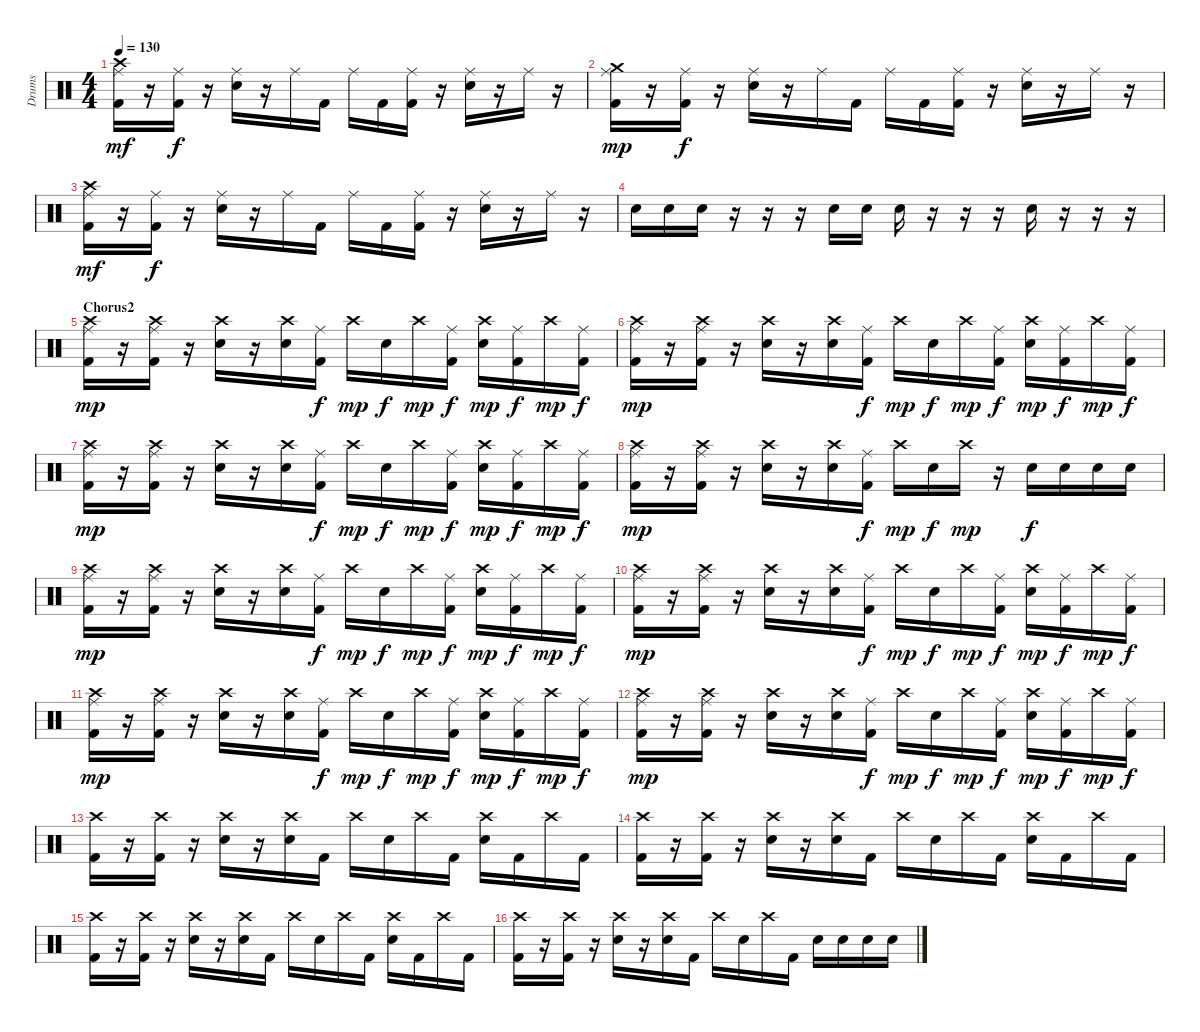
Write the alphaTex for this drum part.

\track ("Drums" "Drums") {instrument percussion}
\staff {score}
\articulation defaults
\ts (4 4)
\tempo 130
\clef neutral
\ks c
("Crash high (hit)" "Ride (middle)" "Kick (hit) 2").16{dy mf} r.16 ("Ride (middle)" "Kick (hit) 2").16{dy f} r.16 ("Ride (middle)" "Snare (hit) 2").16 r.16 "Ride (middle)".16 "Kick (hit) 2".16 "Ride (middle)".16 "Kick (hit) 2".16 ("Ride (middle)" "Kick (hit) 2").16 r.16 ("Ride (middle)" "Snare (hit) 2").16 r.16 "Ride (middle)".16 r.16 |
("Crash medium (hit)" "Ride (middle)" "Kick (hit) 2").16{dy mp} r.16 ("Ride (middle)" "Kick (hit) 2").16{dy f} r.16 ("Ride (middle)" "Snare (hit) 2").16 r.16 "Ride (middle)".16 "Kick (hit) 2".16 "Ride (middle)".16 "Kick (hit) 2".16 ("Ride (middle)" "Kick (hit) 2").16 r.16 ("Ride (middle)" "Snare (hit) 2").16 r.16 "Ride (middle)".16 r.16 |
("Crash high (hit)" "Ride (middle)" "Kick (hit) 2").16{dy mf} r.16 ("Ride (middle)" "Kick (hit) 2").16{dy f} r.16 ("Ride (middle)" "Snare (hit) 2").16 r.16 "Ride (middle)".16 "Kick (hit) 2".16 "Ride (middle)".16 "Kick (hit) 2".16 ("Ride (middle)" "Kick (hit) 2").16 r.16 ("Ride (middle)" "Snare (hit) 2").16 r.16 "Ride (middle)".16 r.16 |
"Snare (hit) 2".16 "Snare (hit) 2".16 "Snare (hit) 2".16 r.16 r.16 r.16 "Snare (hit) 2".16 "Snare (hit) 2".16 "Snare (hit) 2".16 r.16 r.16 r.16 "Snare (hit) 2".16 r.16 r.16 r.16 |
\section ("" "Chorus2")
("Ride (middle)" "Crash high (hit)" "Kick (hit) 2").16{dy mp} r.16 ("Ride (middle)" "Crash high (hit)" "Kick (hit) 2").16 r.16 ("Crash high (hit)" "Snare (hit) 2").16 r.16 ("Crash high (hit)" "Snare (hit) 2").16 ("Ride (middle)" "Kick (hit) 2").16{dy f} "Crash high (hit)".16{dy mp} "Snare (hit) 2".16{dy f} "Crash high (hit)".16{dy mp} ("Ride (middle)" "Kick (hit) 2").16{dy f} ("Crash high (hit)" "Snare (hit) 2").16{dy mp} ("Ride (middle)" "Kick (hit) 2").16{dy f} "Crash high (hit)".16{dy mp} ("Ride (middle)" "Kick (hit) 2").16{dy f} |
("Ride (middle)" "Crash high (hit)" "Kick (hit) 2").16{dy mp} r.16 ("Ride (middle)" "Crash high (hit)" "Kick (hit) 2").16 r.16 ("Crash high (hit)" "Snare (hit) 2").16 r.16 ("Crash high (hit)" "Snare (hit) 2").16 ("Ride (middle)" "Kick (hit) 2").16{dy f} "Crash high (hit)".16{dy mp} "Snare (hit) 2".16{dy f} "Crash high (hit)".16{dy mp} ("Ride (middle)" "Kick (hit) 2").16{dy f} ("Crash high (hit)" "Snare (hit) 2").16{dy mp} ("Ride (middle)" "Kick (hit) 2").16{dy f} "Crash high (hit)".16{dy mp} ("Ride (middle)" "Kick (hit) 2").16{dy f} |
("Ride (middle)" "Crash high (hit)" "Kick (hit) 2").16{dy mp} r.16 ("Ride (middle)" "Crash high (hit)" "Kick (hit) 2").16 r.16 ("Crash high (hit)" "Snare (hit) 2").16 r.16 ("Crash high (hit)" "Snare (hit) 2").16 ("Ride (middle)" "Kick (hit) 2").16{dy f} "Crash high (hit)".16{dy mp} "Snare (hit) 2".16{dy f} "Crash high (hit)".16{dy mp} ("Ride (middle)" "Kick (hit) 2").16{dy f} ("Crash high (hit)" "Snare (hit) 2").16{dy mp} ("Ride (middle)" "Kick (hit) 2").16{dy f} "Crash high (hit)".16{dy mp} ("Ride (middle)" "Kick (hit) 2").16{dy f} |
("Ride (middle)" "Crash high (hit)" "Kick (hit) 2").16{dy mp} r.16 ("Ride (middle)" "Crash high (hit)" "Kick (hit) 2").16 r.16 ("Crash high (hit)" "Snare (hit) 2").16 r.16 ("Crash high (hit)" "Snare (hit) 2").16 ("Ride (middle)" "Kick (hit) 2").16{dy f} "Crash high (hit)".16{dy mp} "Snare (hit) 2".16{dy f} "Crash high (hit)".16{dy mp} r.16 "Snare (hit) 2".16{dy f} "Snare (hit) 2".16 "Snare (hit) 2".16 "Snare (hit) 2".16 |
("Ride (middle)" "Crash high (hit)" "Kick (hit) 2").16{dy mp} r.16 ("Ride (middle)" "Crash high (hit)" "Kick (hit) 2").16 r.16 ("Crash high (hit)" "Snare (hit) 2").16 r.16 ("Crash high (hit)" "Snare (hit) 2").16 ("Ride (middle)" "Kick (hit) 2").16{dy f} "Crash high (hit)".16{dy mp} "Snare (hit) 2".16{dy f} "Crash high (hit)".16{dy mp} ("Ride (middle)" "Kick (hit) 2").16{dy f} ("Crash high (hit)" "Snare (hit) 2").16{dy mp} ("Ride (middle)" "Kick (hit) 2").16{dy f} "Crash high (hit)".16{dy mp} ("Ride (middle)" "Kick (hit) 2").16{dy f} |
("Ride (middle)" "Crash high (hit)" "Kick (hit) 2").16{dy mp} r.16 ("Ride (middle)" "Crash high (hit)" "Kick (hit) 2").16 r.16 ("Crash high (hit)" "Snare (hit) 2").16 r.16 ("Crash high (hit)" "Snare (hit) 2").16 ("Ride (middle)" "Kick (hit) 2").16{dy f} "Crash high (hit)".16{dy mp} "Snare (hit) 2".16{dy f} "Crash high (hit)".16{dy mp} ("Ride (middle)" "Kick (hit) 2").16{dy f} ("Crash high (hit)" "Snare (hit) 2").16{dy mp} ("Ride (middle)" "Kick (hit) 2").16{dy f} "Crash high (hit)".16{dy mp} ("Ride (middle)" "Kick (hit) 2").16{dy f} |
("Ride (middle)" "Crash high (hit)" "Kick (hit) 2").16{dy mp} r.16 ("Ride (middle)" "Crash high (hit)" "Kick (hit) 2").16 r.16 ("Crash high (hit)" "Snare (hit) 2").16 r.16 ("Crash high (hit)" "Snare (hit) 2").16 ("Ride (middle)" "Kick (hit) 2").16{dy f} "Crash high (hit)".16{dy mp} "Snare (hit) 2".16{dy f} "Crash high (hit)".16{dy mp} ("Ride (middle)" "Kick (hit) 2").16{dy f} ("Crash high (hit)" "Snare (hit) 2").16{dy mp} ("Ride (middle)" "Kick (hit) 2").16{dy f} "Crash high (hit)".16{dy mp} ("Ride (middle)" "Kick (hit) 2").16{dy f} |
("Ride (middle)" "Crash high (hit)" "Kick (hit) 2").16{dy mp} r.16 ("Ride (middle)" "Crash high (hit)" "Kick (hit) 2").16 r.16 ("Crash high (hit)" "Snare (hit) 2").16 r.16 ("Crash high (hit)" "Snare (hit) 2").16 ("Ride (middle)" "Kick (hit) 2").16{dy f} "Crash high (hit)".16{dy mp} "Snare (hit) 2".16{dy f} "Crash high (hit)".16{dy mp} ("Ride (middle)" "Kick (hit) 2").16{dy f} ("Crash high (hit)" "Snare (hit) 2").16{dy mp} ("Ride (middle)" "Kick (hit) 2").16{dy f} "Crash high (hit)".16{dy mp} ("Ride (middle)" "Kick (hit) 2").16{dy f} |
("Crash high (hit)" "Kick (hit) 2").16 r.16 ("Crash high (hit)" "Kick (hit) 2").16 r.16 ("Crash high (hit)" "Snare (hit) 2").16 r.16 ("Crash high (hit)" "Snare (hit) 2").16 "Kick (hit) 2".16 "Crash high (hit)".16 "Snare (hit) 2".16 "Crash high (hit)".16 "Kick (hit) 2".16 ("Crash high (hit)" "Snare (hit) 2").16 "Kick (hit) 2".16 "Crash high (hit)".16 "Kick (hit) 2".16 |
("Crash high (hit)" "Kick (hit) 2").16 r.16 ("Crash high (hit)" "Kick (hit) 2").16 r.16 ("Crash high (hit)" "Snare (hit) 2").16 r.16 ("Crash high (hit)" "Snare (hit) 2").16 "Kick (hit) 2".16 "Crash high (hit)".16 "Snare (hit) 2".16 "Crash high (hit)".16 "Kick (hit) 2".16 ("Crash high (hit)" "Snare (hit) 2").16 "Kick (hit) 2".16 "Crash high (hit)".16 "Kick (hit) 2".16 |
("Crash high (hit)" "Kick (hit) 2").16 r.16 ("Crash high (hit)" "Kick (hit) 2").16 r.16 ("Crash high (hit)" "Snare (hit) 2").16 r.16 ("Crash high (hit)" "Snare (hit) 2").16 "Kick (hit) 2".16 "Crash high (hit)".16 "Snare (hit) 2".16 "Crash high (hit)".16 "Kick (hit) 2".16 ("Crash high (hit)" "Snare (hit) 2").16 "Kick (hit) 2".16 "Crash high (hit)".16 "Kick (hit) 2".16 |
("Crash high (hit)" "Kick (hit) 2").16 r.16 ("Crash high (hit)" "Kick (hit) 2").16 r.16 ("Crash high (hit)" "Snare (hit) 2").16 r.16 ("Crash high (hit)" "Snare (hit) 2").16 "Kick (hit) 2".16 "Crash high (hit)".16 "Snare (hit) 2".16 "Crash high (hit)".16 "Kick (hit) 2".16 "Snare (hit) 2".16 "Snare (hit) 2".16 "Snare (hit) 2".16 "Snare (hit) 2".16
